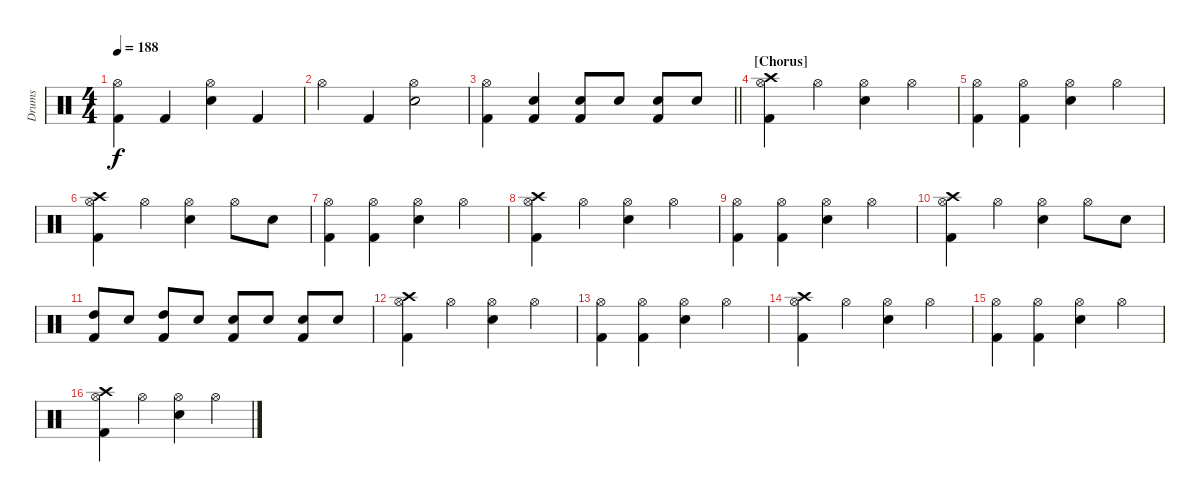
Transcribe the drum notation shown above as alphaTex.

\track ("Drums" "Drums") {instrument percussion}
\staff {score}
\articulation defaults
\ts (4 4)
\tempo 188
\clef neutral
\ks c
("Hi-Hat (open)" "Kick (hit) 2").4{dy f} "Kick (hit) 2".4 ("Hi-Hat (open)" "Electric Snare (hit)").4 "Kick (hit) 2".4 |
"Hi-Hat (open)".4 "Kick (hit) 2".4 ("Hi-Hat (open)" "Electric Snare (hit)").2 |
\barLineRight lightlight
("Hi-Hat (open)" "Kick (hit) 2").4 ("Electric Snare (hit)" "Kick (hit) 2").4 ("Electric Snare (hit)" "Kick (hit) 2").8 "Electric Snare (hit)".8 ("Electric Snare (hit)" "Kick (hit) 2").8 "Electric Snare (hit)".8 |
\section ("" "[Chorus]")
("Crash high (hit)" "Hi-Hat (open)" "Kick (hit) 2").4 "Hi-Hat (open)".4 ("Hi-Hat (open)" "Electric Snare (hit)").4 "Hi-Hat (open)".4 |
("Hi-Hat (open)" "Kick (hit) 2").4 ("Hi-Hat (open)" "Kick (hit) 2").4 ("Hi-Hat (open)" "Electric Snare (hit)").4 "Hi-Hat (open)".4 |
("Crash high (hit)" "Hi-Hat (open)" "Kick (hit) 2").4 "Hi-Hat (open)".4 ("Hi-Hat (open)" "Electric Snare (hit)").4 "Hi-Hat (open)".8 "Electric Snare (hit)".8 |
("Hi-Hat (open)" "Kick (hit) 2").4 ("Hi-Hat (open)" "Kick (hit) 2").4 ("Hi-Hat (open)" "Electric Snare (hit)").4 "Hi-Hat (open)".4 |
("Crash high (hit)" "Hi-Hat (open)" "Kick (hit) 2").4 "Hi-Hat (open)".4 ("Hi-Hat (open)" "Electric Snare (hit)").4 "Hi-Hat (open)".4 |
("Hi-Hat (open)" "Kick (hit) 2").4 ("Hi-Hat (open)" "Kick (hit) 2").4 ("Hi-Hat (open)" "Electric Snare (hit)").4 "Hi-Hat (open)".4 |
("Crash high (hit)" "Hi-Hat (open)" "Kick (hit) 2").4 "Hi-Hat (open)".4 ("Hi-Hat (open)" "Electric Snare (hit)").4 "Hi-Hat (open)".8 "Electric Snare (hit)".8 |
("High Tom (hit)" "Kick (hit) 2").8 "Electric Snare (hit)".8 ("High Tom (hit)" "Kick (hit) 2").8 "Electric Snare (hit)".8 ("Electric Snare (hit)" "Kick (hit) 2").8 "Electric Snare (hit)".8 ("Electric Snare (hit)" "Kick (hit) 2").8 "Electric Snare (hit)".8 |
("Crash high (hit)" "Hi-Hat (open)" "Kick (hit) 2").4 "Hi-Hat (open)".4 ("Hi-Hat (open)" "Electric Snare (hit)").4 "Hi-Hat (open)".4 |
("Hi-Hat (open)" "Kick (hit) 2").4 ("Hi-Hat (open)" "Kick (hit) 2").4 ("Hi-Hat (open)" "Electric Snare (hit)").4 "Hi-Hat (open)".4 |
("Crash high (hit)" "Hi-Hat (open)" "Kick (hit) 2").4 "Hi-Hat (open)".4 ("Hi-Hat (open)" "Electric Snare (hit)").4 "Hi-Hat (open)".4 |
("Hi-Hat (open)" "Kick (hit) 2").4 ("Hi-Hat (open)" "Kick (hit) 2").4 ("Hi-Hat (open)" "Electric Snare (hit)").4 "Hi-Hat (open)".4 |
("Crash high (hit)" "Hi-Hat (open)" "Kick (hit) 2").4 "Hi-Hat (open)".4 ("Hi-Hat (open)" "Electric Snare (hit)").4 "Hi-Hat (open)".4
